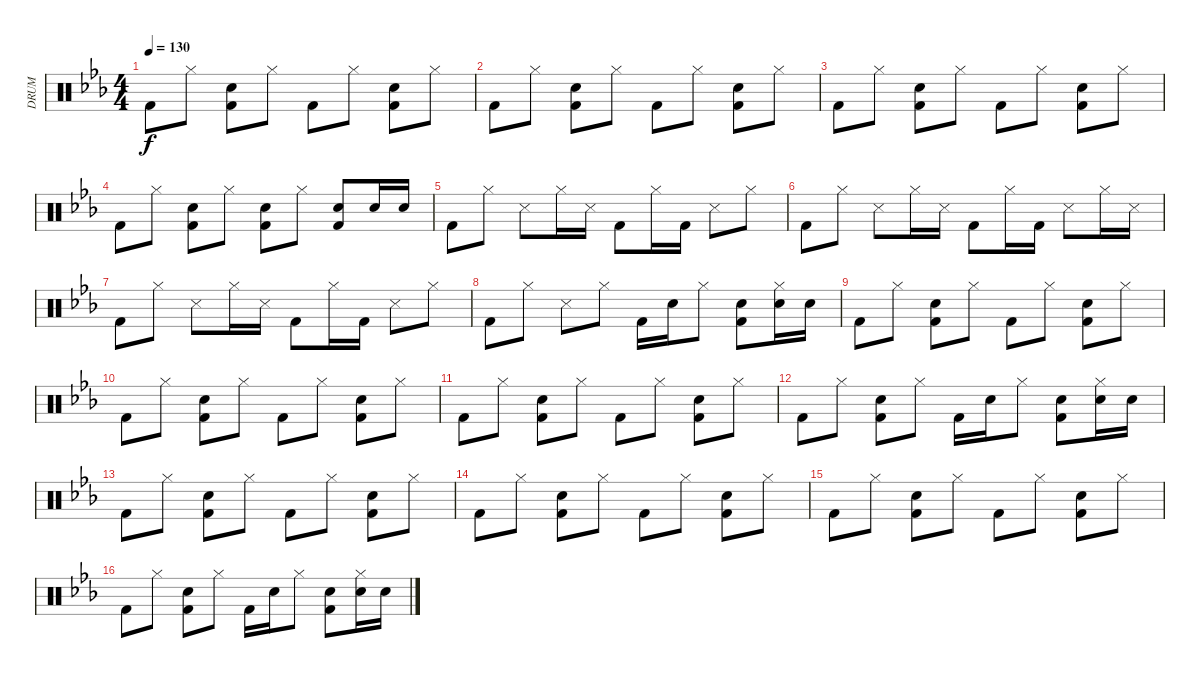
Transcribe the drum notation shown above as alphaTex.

\track ("DRUM" "DRUM") {instrument percussion}
\staff {score}
\articulation defaults
\ts (4 4)
\tempo 130
\clef neutral
\ks eb "Kick (hit) 2".8{dy f} "Hi-Hat (closed)".8
("Hand Clap (hit)" "Kick (hit) 2").8 "Hi-Hat (closed)".8 "Kick (hit) 2".8 "Hi-Hat (closed)".8 ("Hand Clap (hit)" "Kick (hit) 2").8 "Hi-Hat (closed)".8 |
"Kick (hit) 2".8 "Hi-Hat (closed)".8 ("Hand Clap (hit)" "Kick (hit) 2").8 "Hi-Hat (closed)".8 "Kick (hit) 2".8 "Hi-Hat (closed)".8 ("Hand Clap (hit)" "Kick (hit) 2").8 "Hi-Hat (closed)".8 |
"Kick (hit) 2".8 "Hi-Hat (closed)".8 ("Hand Clap (hit)" "Kick (hit) 2").8 "Hi-Hat (closed)".8 "Kick (hit) 2".8 "Hi-Hat (closed)".8 ("Hand Clap (hit)" "Kick (hit) 2").8 "Hi-Hat (closed)".8 |
"Kick (hit) 2".8 "Hi-Hat (closed)".8 ("Hand Clap (hit)" "Kick (hit) 2").8 "Hi-Hat (closed)".8 ("Hand Clap (hit)" "Kick (hit) 2").8 "Hi-Hat (closed)".8 ("Hand Clap (hit)" "Kick (hit) 2").8 "Hand Clap (hit)".16 "Hand Clap (hit)".16 |
"Kick (hit) 2".8 "Hi-Hat (closed)".8 "Metronome (hit)".8 "Hi-Hat (closed)".16 "Metronome (hit)".16 "Kick (hit) 2".8 "Hi-Hat (closed)".16 "Kick (hit) 2".16 "Metronome (hit)".8 "Hi-Hat (closed)".8 |
"Kick (hit) 2".8 "Hi-Hat (closed)".8 "Metronome (hit)".8 "Hi-Hat (closed)".16 "Metronome (hit)".16 "Kick (hit) 2".8 "Hi-Hat (closed)".16 "Kick (hit) 2".16 "Metronome (hit)".8 "Hi-Hat (closed)".16 "Metronome (hit)".16 |
"Kick (hit) 2".8 "Hi-Hat (closed)".8 "Metronome (hit)".8 "Hi-Hat (closed)".16 "Metronome (hit)".16 "Kick (hit) 2".8 "Hi-Hat (closed)".16 "Kick (hit) 2".16 "Metronome (hit)".8 "Hi-Hat (closed)".8 |
"Kick (hit) 2".8 "Hi-Hat (closed)".8 "Metronome (hit)".8 "Hi-Hat (closed)".8 "Kick (hit) 2".16 "Hand Clap (hit)".16 "Hi-Hat (closed)".8 ("Hand Clap (hit)" "Kick (hit) 2").8 ("Hi-Hat (closed)" "Hand Clap (hit)").16 "Hand Clap (hit)".16 |
"Kick (hit) 2".8 "Hi-Hat (closed)".8 ("Hand Clap (hit)" "Kick (hit) 2").8 "Hi-Hat (closed)".8 "Kick (hit) 2".8 "Hi-Hat (closed)".8 ("Hand Clap (hit)" "Kick (hit) 2").8 "Hi-Hat (closed)".8 |
"Kick (hit) 2".8 "Hi-Hat (closed)".8 ("Hand Clap (hit)" "Kick (hit) 2").8 "Hi-Hat (closed)".8 "Kick (hit) 2".8 "Hi-Hat (closed)".8 ("Hand Clap (hit)" "Kick (hit) 2").8 "Hi-Hat (closed)".8 |
"Kick (hit) 2".8 "Hi-Hat (closed)".8 ("Hand Clap (hit)" "Kick (hit) 2").8 "Hi-Hat (closed)".8 "Kick (hit) 2".8 "Hi-Hat (closed)".8 ("Hand Clap (hit)" "Kick (hit) 2").8 "Hi-Hat (closed)".8 |
"Kick (hit) 2".8 "Hi-Hat (closed)".8 ("Hand Clap (hit)" "Kick (hit) 2").8 "Hi-Hat (closed)".8 "Kick (hit) 2".16 "Hand Clap (hit)".16 "Hi-Hat (closed)".8 ("Hand Clap (hit)" "Kick (hit) 2").8 ("Hi-Hat (closed)" "Hand Clap (hit)").16 "Hand Clap (hit)".16 |
"Kick (hit) 2".8 "Hi-Hat (closed)".8 ("Hand Clap (hit)" "Kick (hit) 2").8 "Hi-Hat (closed)".8 "Kick (hit) 2".8 "Hi-Hat (closed)".8 ("Hand Clap (hit)" "Kick (hit) 2").8 "Hi-Hat (closed)".8 |
"Kick (hit) 2".8 "Hi-Hat (closed)".8 ("Hand Clap (hit)" "Kick (hit) 2").8 "Hi-Hat (closed)".8 "Kick (hit) 2".8 "Hi-Hat (closed)".8 ("Hand Clap (hit)" "Kick (hit) 2").8 "Hi-Hat (closed)".8 |
"Kick (hit) 2".8 "Hi-Hat (closed)".8 ("Hand Clap (hit)" "Kick (hit) 2").8 "Hi-Hat (closed)".8 "Kick (hit) 2".8 "Hi-Hat (closed)".8 ("Hand Clap (hit)" "Kick (hit) 2").8 "Hi-Hat (closed)".8 |
"Kick (hit) 2".8 "Hi-Hat (closed)".8 ("Hand Clap (hit)" "Kick (hit) 2").8 "Hi-Hat (closed)".8 "Kick (hit) 2".16 "Hand Clap (hit)".16 "Hi-Hat (closed)".8 ("Hand Clap (hit)" "Kick (hit) 2").8 ("Hi-Hat (closed)" "Hand Clap (hit)").16 "Hand Clap (hit)".16
